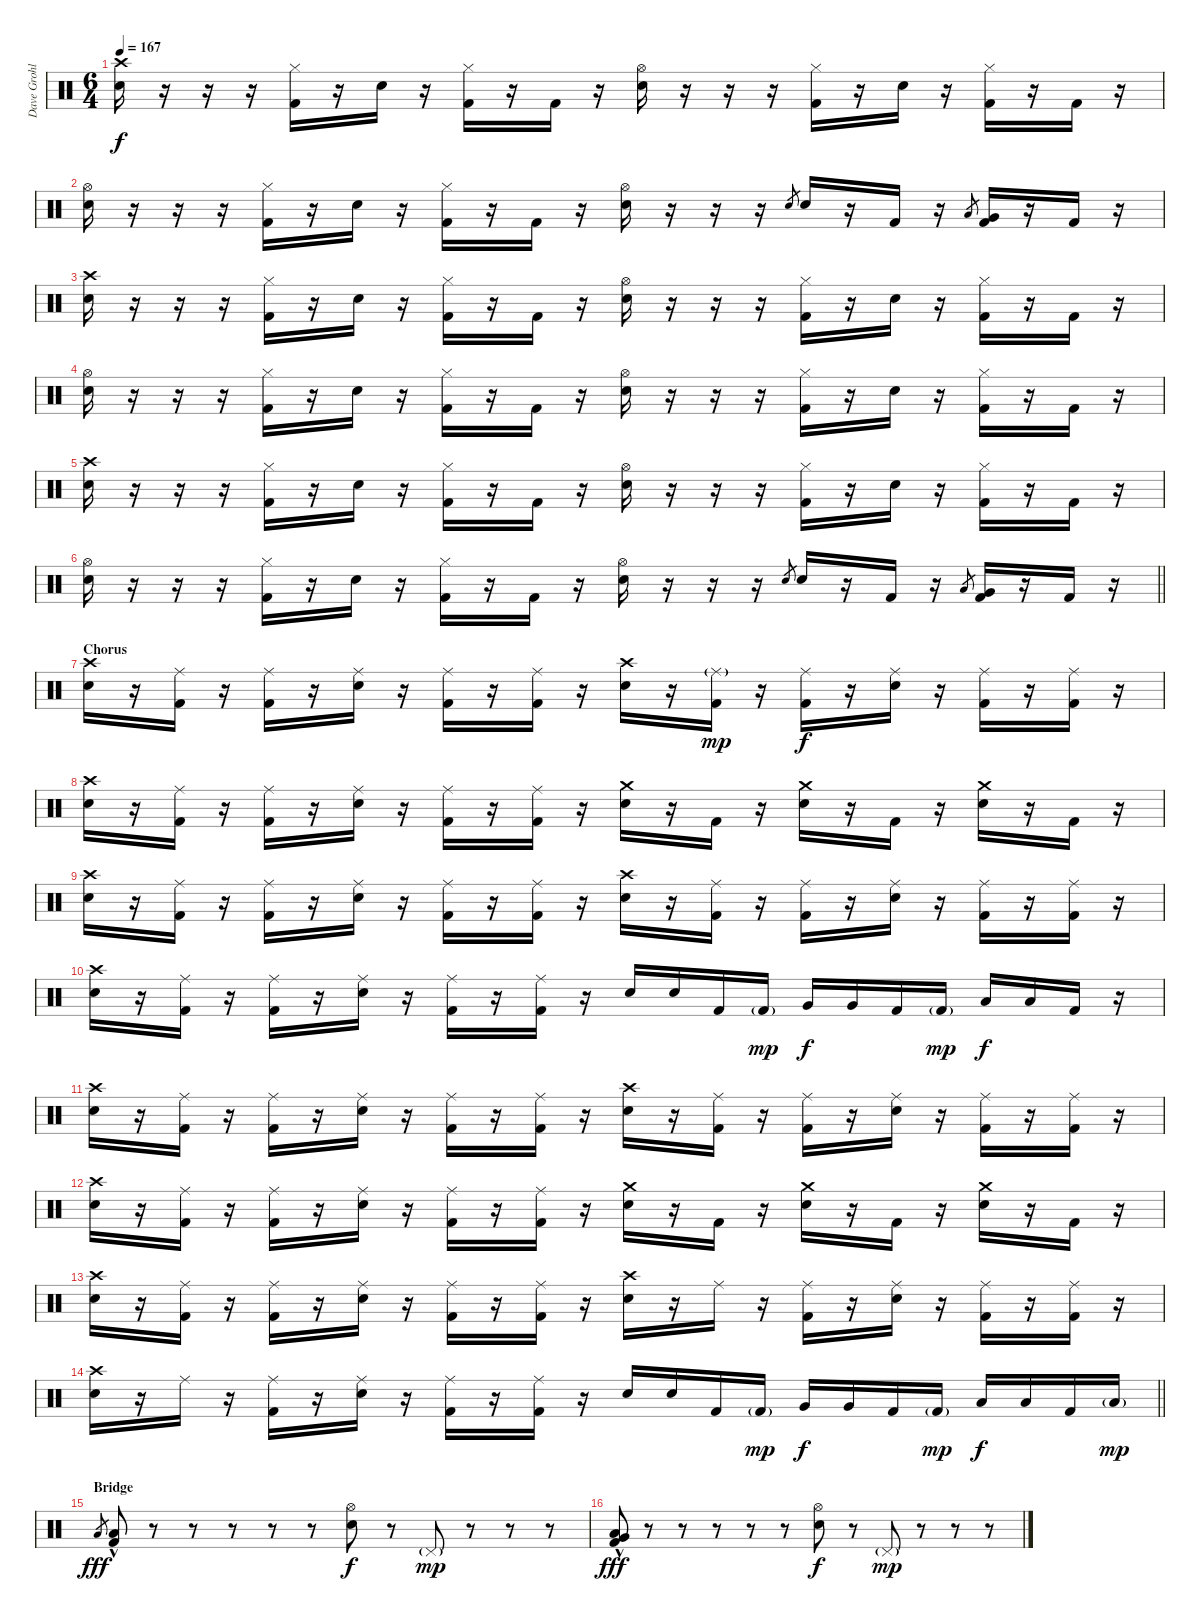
\track ("Dave Grohl" "Dave Grohl") {instrument percussion}
\staff {score}
\articulation defaults
\ts (6 4)
\tempo 167
\clef neutral
\ks c
("Crash high (hit)" "Electric Snare (hit)").16{dy f} r.16 r.16 r.16 ("Hi-Hat (closed)" "Kick (hit) 2").16 r.16 "Electric Snare (hit)".16 r.16 ("Hi-Hat (closed)" "Kick (hit) 2").16 r.16 "Kick (hit) 2".16 r.16 ("Hi-Hat (open)" "Electric Snare (hit)").16 r.16 r.16 r.16 ("Hi-Hat (closed)" "Kick (hit) 2").16 r.16 "Electric Snare (hit)".16 r.16 ("Hi-Hat (closed)" "Kick (hit) 2").16 r.16 "Kick (hit) 2".16 r.16 |
("Hi-Hat (open)" "Electric Snare (hit)").16 r.16 r.16 r.16 ("Hi-Hat (closed)" "Kick (hit) 2").16 r.16 "Electric Snare (hit)".16 r.16 ("Hi-Hat (closed)" "Kick (hit) 2").16 r.16 "Kick (hit) 2".16 r.16 ("Hi-Hat (open)" "Electric Snare (hit)").16 r.16 r.16 r.16 "Electric Snare (hit)".8{gr} "Electric Snare (hit)".16 r.16 "Kick (hit) 2".16 r.16 "Low Tom (hit)".8{gr} ("Very Low Tom (hit)" "Kick (hit) 2").16 r.16 "Kick (hit) 2".16 r.16 |
("Crash high (hit)" "Electric Snare (hit)").16 r.16 r.16 r.16 ("Hi-Hat (closed)" "Kick (hit) 2").16 r.16 "Electric Snare (hit)".16 r.16 ("Hi-Hat (closed)" "Kick (hit) 2").16 r.16 "Kick (hit) 2".16 r.16 ("Hi-Hat (open)" "Electric Snare (hit)").16 r.16 r.16 r.16 ("Hi-Hat (closed)" "Kick (hit) 2").16 r.16 "Electric Snare (hit)".16 r.16 ("Hi-Hat (closed)" "Kick (hit) 2").16 r.16 "Kick (hit) 2".16 r.16 |
("Hi-Hat (open)" "Electric Snare (hit)").16 r.16 r.16 r.16 ("Hi-Hat (closed)" "Kick (hit) 2").16 r.16 "Electric Snare (hit)".16 r.16 ("Hi-Hat (closed)" "Kick (hit) 2").16 r.16 "Kick (hit) 2".16 r.16 ("Hi-Hat (open)" "Electric Snare (hit)").16 r.16 r.16 r.16 ("Hi-Hat (closed)" "Kick (hit) 2").16 r.16 "Electric Snare (hit)".16 r.16 ("Hi-Hat (closed)" "Kick (hit) 2").16 r.16 "Kick (hit) 2".16 r.16 |
("Crash high (hit)" "Electric Snare (hit)").16 r.16 r.16 r.16 ("Hi-Hat (closed)" "Kick (hit) 2").16 r.16 "Electric Snare (hit)".16 r.16 ("Hi-Hat (closed)" "Kick (hit) 2").16 r.16 "Kick (hit) 2".16 r.16 ("Hi-Hat (open)" "Electric Snare (hit)").16 r.16 r.16 r.16 ("Hi-Hat (closed)" "Kick (hit) 2").16 r.16 "Electric Snare (hit)".16 r.16 ("Hi-Hat (closed)" "Kick (hit) 2").16 r.16 "Kick (hit) 2".16 r.16 |
\barLineRight lightlight
("Hi-Hat (open)" "Electric Snare (hit)").16 r.16 r.16 r.16 ("Hi-Hat (closed)" "Kick (hit) 2").16 r.16 "Electric Snare (hit)".16 r.16 ("Hi-Hat (closed)" "Kick (hit) 2").16 r.16 "Kick (hit) 2".16 r.16 ("Hi-Hat (open)" "Electric Snare (hit)").16 r.16 r.16 r.16 "Electric Snare (hit)".8{gr} "Electric Snare (hit)".16 r.16 "Kick (hit) 2".16 r.16 "Low Tom (hit)".8{gr} ("Very Low Tom (hit)" "Kick (hit) 2").16 r.16 "Kick (hit) 2".16 r.16 |
\section ("" "Chorus")
("Crash high (hit)" "Electric Snare (hit)").16 r.16 ("Ride (middle)" "Kick (hit) 2").16 r.16 ("Ride (middle)" "Kick (hit) 2").16 r.16 ("Ride (middle)" "Electric Snare (hit)").16 r.16 ("Ride (middle)" "Kick (hit) 2").16 r.16 ("Ride (middle)" "Kick (hit) 2").16 r.16 ("Crash high (hit)" "Electric Snare (hit)").16 r.16 ("Ride (middle)"{g} "Kick (hit) 2").16{dy mp} r.16 ("Ride (middle)" "Kick (hit) 2").16{dy f} r.16 ("Ride (middle)" "Electric Snare (hit)").16 r.16 ("Ride (middle)" "Kick (hit) 2").16 r.16 ("Ride (middle)" "Kick (hit) 2").16 r.16 |
("Crash high (hit)" "Electric Snare (hit)").16 r.16 ("Ride (middle)" "Kick (hit) 2").16 r.16 ("Ride (middle)" "Kick (hit) 2").16 r.16 ("Ride (middle)" "Electric Snare (hit)").16 r.16 ("Ride (middle)" "Kick (hit) 2").16 r.16 ("Ride (middle)" "Kick (hit) 2").16 r.16 ("Crash medium (hit)" "Electric Snare (hit)").16 r.16 "Kick (hit) 2".16 r.16 ("Crash medium (hit)" "Electric Snare (hit)").16 r.16 "Kick (hit) 2".16 r.16 ("Crash medium (hit)" "Electric Snare (hit)").16 r.16 "Kick (hit) 2".16 r.16 |
("Crash high (hit)" "Electric Snare (hit)").16 r.16 ("Ride (middle)" "Kick (hit) 2").16 r.16 ("Ride (middle)" "Kick (hit) 2").16 r.16 ("Ride (middle)" "Electric Snare (hit)").16 r.16 ("Ride (middle)" "Kick (hit) 2").16 r.16 ("Ride (middle)" "Kick (hit) 2").16 r.16 ("Crash high (hit)" "Electric Snare (hit)").16 r.16 ("Ride (middle)" "Kick (hit) 2").16 r.16 ("Ride (middle)" "Kick (hit) 2").16 r.16 ("Ride (middle)" "Electric Snare (hit)").16 r.16 ("Ride (middle)" "Kick (hit) 2").16 r.16 ("Ride (middle)" "Kick (hit) 2").16 r.16 |
("Crash high (hit)" "Electric Snare (hit)").16 r.16 ("Ride (middle)" "Kick (hit) 2").16 r.16 ("Ride (middle)" "Kick (hit) 2").16 r.16 ("Ride (middle)" "Electric Snare (hit)").16 r.16 ("Ride (middle)" "Kick (hit) 2").16 r.16 ("Ride (middle)" "Kick (hit) 2").16 r.16 "Electric Snare (hit)".16 "Electric Snare (hit)".16 "Kick (hit) 2".16 "Kick (hit) 2"{g}.16{dy mp} "Very Low Tom (hit)".16{dy f} "Very Low Tom (hit)".16 "Kick (hit) 2".16 "Kick (hit) 2"{g}.16{dy mp} "Low Floor Tom (hit)".16{dy f} "Low Floor Tom (hit)".16 "Kick (hit) 2".16 r.16 |
("Crash high (hit)" "Electric Snare (hit)").16 r.16 ("Ride (middle)" "Kick (hit) 2").16 r.16 ("Ride (middle)" "Kick (hit) 2").16 r.16 ("Ride (middle)" "Electric Snare (hit)").16 r.16 ("Ride (middle)" "Kick (hit) 2").16 r.16 ("Ride (middle)" "Kick (hit) 2").16 r.16 ("Crash high (hit)" "Electric Snare (hit)").16 r.16 ("Ride (middle)" "Kick (hit) 2").16 r.16 ("Ride (middle)" "Kick (hit) 2").16 r.16 ("Ride (middle)" "Electric Snare (hit)").16 r.16 ("Ride (middle)" "Kick (hit) 2").16 r.16 ("Ride (middle)" "Kick (hit) 2").16 r.16 |
("Crash high (hit)" "Electric Snare (hit)").16 r.16 ("Ride (middle)" "Kick (hit) 2").16 r.16 ("Ride (middle)" "Kick (hit) 2").16 r.16 ("Ride (middle)" "Electric Snare (hit)").16 r.16 ("Ride (middle)" "Kick (hit) 2").16 r.16 ("Ride (middle)" "Kick (hit) 2").16 r.16 ("Crash medium (hit)" "Electric Snare (hit)").16 r.16 "Kick (hit) 2".16 r.16 ("Crash medium (hit)" "Electric Snare (hit)").16 r.16 "Kick (hit) 2".16 r.16 ("Crash medium (hit)" "Electric Snare (hit)").16 r.16 "Kick (hit) 2".16 r.16 |
("Crash high (hit)" "Electric Snare (hit)").16 r.16 ("Ride (middle)" "Kick (hit) 2").16 r.16 ("Ride (middle)" "Kick (hit) 2").16 r.16 ("Ride (middle)" "Electric Snare (hit)").16 r.16 ("Ride (middle)" "Kick (hit) 2").16 r.16 ("Ride (middle)" "Kick (hit) 2").16 r.16 ("Crash high (hit)" "Electric Snare (hit)").16 r.16 "Ride (middle)".16 r.16 ("Ride (middle)" "Kick (hit) 2").16 r.16 ("Ride (middle)" "Electric Snare (hit)").16 r.16 ("Ride (middle)" "Kick (hit) 2").16 r.16 ("Ride (middle)" "Kick (hit) 2").16 r.16 |
\barLineRight lightlight
("Crash high (hit)" "Electric Snare (hit)").16 r.16 "Ride (middle)".16 r.16 ("Ride (middle)" "Kick (hit) 2").16 r.16 ("Ride (middle)" "Electric Snare (hit)").16 r.16 ("Ride (middle)" "Kick (hit) 2").16 r.16 ("Ride (middle)" "Kick (hit) 2").16 r.16 "Electric Snare (hit)".16 "Electric Snare (hit)".16 "Kick (hit) 2".16 "Kick (hit) 2"{g}.16{dy mp} "Very Low Tom (hit)".16{dy f} "Very Low Tom (hit)".16 "Kick (hit) 2".16 "Kick (hit) 2"{g}.16{dy mp} "Low Floor Tom (hit)".16{dy f} "Low Floor Tom (hit)".16 "Kick (hit) 2".16 "Low Floor Tom (hit)"{g}.16{dy mp} |
\section ("" "Bridge")
"Low Floor Tom (hit)".8{gr dy fff} ("Low Floor Tom (hit)"{hac} "Kick (hit) 2"{hac}).8 r.8 r.8 r.8 r.8 r.8 ("Hi-Hat (open)" "Electric Snare (hit)").8{dy f} r.8 "Pedal Hi-Hat (hit)"{g}.8{dy mp} r.8 r.8 r.8 |
("Very Low Tom (hit)"{hac} "Low Tom (hit)"{hac} "Kick (hit) 2"{hac}).8{dy fff} r.8 r.8 r.8 r.8 r.8 ("Hi-Hat (open)" "Electric Snare (hit)").8{dy f} r.8 "Pedal Hi-Hat (hit)"{g}.8{dy mp} r.8 r.8 r.8
